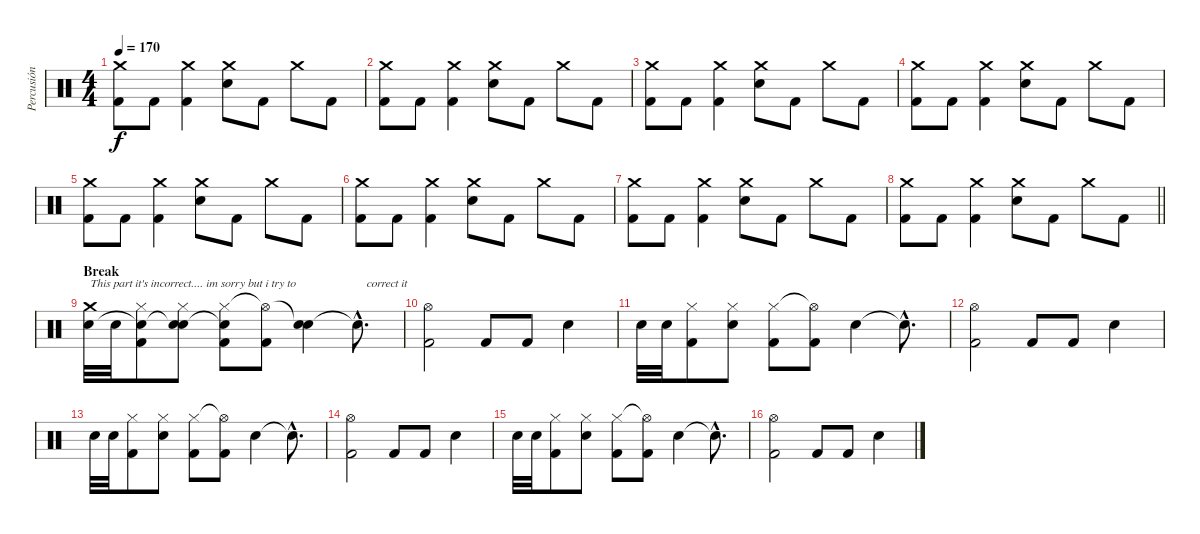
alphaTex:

\track ("Percusión" "Percusión") {instrument percussion}
\staff {score}
\articulation defaults
\ts (4 4)
\tempo 170
\clef neutral
\ks c
("Crash medium (hit)" "Kick (hit) 2").8{dy f} "Kick (hit) 2".8 ("Crash medium (hit)" "Kick (hit) 2").4 ("Crash medium (hit)" "Electric Snare (hit)").8 "Kick (hit) 2".8 "Crash medium (hit)".8 "Kick (hit) 2".8 |
("Crash medium (hit)" "Kick (hit) 2").8 "Kick (hit) 2".8 ("Crash medium (hit)" "Kick (hit) 2").4 ("Crash medium (hit)" "Electric Snare (hit)").8 "Kick (hit) 2".8 "Crash medium (hit)".8 "Kick (hit) 2".8 |
("Crash medium (hit)" "Kick (hit) 2").8 "Kick (hit) 2".8 ("Crash medium (hit)" "Kick (hit) 2").4 ("Crash medium (hit)" "Electric Snare (hit)").8 "Kick (hit) 2".8 "Crash medium (hit)".8 "Kick (hit) 2".8 |
("Crash medium (hit)" "Kick (hit) 2").8 "Kick (hit) 2".8 ("Crash medium (hit)" "Kick (hit) 2").4 ("Crash medium (hit)" "Electric Snare (hit)").8 "Kick (hit) 2".8 "Crash medium (hit)".8 "Kick (hit) 2".8 |
("Crash medium (hit)" "Kick (hit) 2").8 "Kick (hit) 2".8 ("Crash medium (hit)" "Kick (hit) 2").4 ("Crash medium (hit)" "Electric Snare (hit)").8 "Kick (hit) 2".8 "Crash medium (hit)".8 "Kick (hit) 2".8 |
("Crash medium (hit)" "Kick (hit) 2").8 "Kick (hit) 2".8 ("Crash medium (hit)" "Kick (hit) 2").4 ("Crash medium (hit)" "Electric Snare (hit)").8 "Kick (hit) 2".8 "Crash medium (hit)".8 "Kick (hit) 2".8 |
("Crash medium (hit)" "Kick (hit) 2").8 "Kick (hit) 2".8 ("Crash medium (hit)" "Kick (hit) 2").4 ("Crash medium (hit)" "Electric Snare (hit)").8 "Kick (hit) 2".8 "Crash medium (hit)".8 "Kick (hit) 2".8 |
\barLineRight lightlight
("Crash medium (hit)" "Kick (hit) 2").8 "Kick (hit) 2".8 ("Crash medium (hit)" "Kick (hit) 2").4 ("Crash medium (hit)" "Electric Snare (hit)").8 "Kick (hit) 2".8 "Crash medium (hit)".8 "Kick (hit) 2".8 |
\section ("" "Break")
("Crash medium (hit)" "Electric Snare (hit)").32{txt "This part it's incorrect.... im sorry but i try to"} "Electric Snare (hit)".32 ("Hi-Hat (closed)" "Snare (hit)"{t} "Kick (hit) 2").8 ("Hi-Hat (closed)" "Snare (hit)"{t} "Electric Snare (hit)").8 ("Hi-Hat (closed)" "Snare (hit)"{t} "Kick (hit) 2").8 ("Hi-Hat (open)"{t} "Kick (hit) 2").8 ("Snare (hit)"{t} "Electric Snare (hit)").4 "Snare (hit)"{hac t}.8{d txt "   correct it"} |
("Hi-Hat (open)" "Kick (hit) 2").2 "Kick (hit) 2".8 "Kick (hit) 2".8 "Electric Snare (hit)".4 |
"Electric Snare (hit)".32 "Electric Snare (hit)".32 ("Hi-Hat (closed)" "Kick (hit) 2").8 ("Hi-Hat (closed)" "Electric Snare (hit)").8 ("Hi-Hat (closed)" "Kick (hit) 2").8 ("Hi-Hat (open)"{t} "Kick (hit) 2").8 "Electric Snare (hit)".4 "Snare (hit)"{hac t}.8{d} |
("Hi-Hat (open)" "Kick (hit) 2").2 "Kick (hit) 2".8 "Kick (hit) 2".8 "Electric Snare (hit)".4 |
"Electric Snare (hit)".32 "Electric Snare (hit)".32 ("Hi-Hat (closed)" "Kick (hit) 2").8 ("Hi-Hat (closed)" "Electric Snare (hit)").8 ("Hi-Hat (closed)" "Kick (hit) 2").8 ("Hi-Hat (open)"{t} "Kick (hit) 2").8 "Electric Snare (hit)".4 "Snare (hit)"{hac t}.8{d} |
("Hi-Hat (open)" "Kick (hit) 2").2 "Kick (hit) 2".8 "Kick (hit) 2".8 "Electric Snare (hit)".4 |
"Electric Snare (hit)".32 "Electric Snare (hit)".32 ("Hi-Hat (closed)" "Kick (hit) 2").8 ("Hi-Hat (closed)" "Electric Snare (hit)").8 ("Hi-Hat (closed)" "Kick (hit) 2").8 ("Hi-Hat (open)"{t} "Kick (hit) 2").8 "Electric Snare (hit)".4 "Snare (hit)"{hac t}.8{d} |
("Hi-Hat (open)" "Kick (hit) 2").2 "Kick (hit) 2".8 "Kick (hit) 2".8 "Electric Snare (hit)".4
